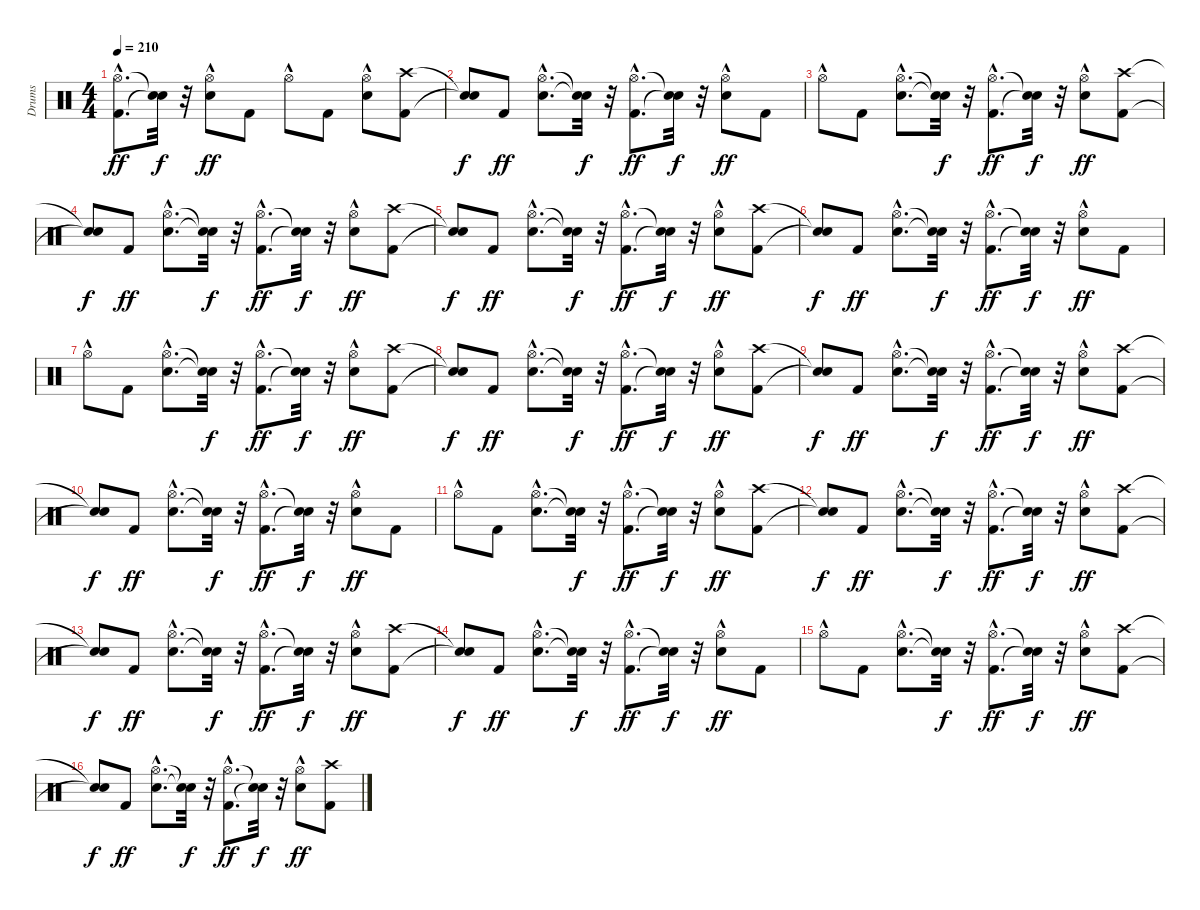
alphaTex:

\track ("Drums" "Drums") {instrument percussion}
\staff {score}
\articulation defaults
\ts (4 4)
\tempo 210
\clef neutral
\ks c
("Kick (hit) 2"{hac} "Hi-Hat (open)"{hac}).8{d dy ff} ("Snare (hit)"{t} "Snare (hit)"{t}).32{dy f} r.32 ("Snare (hit) 2" "Hi-Hat (open)"{hac}).8{dy ff} "Kick (hit) 2".8 "Hi-Hat (open)"{hac}.8 "Kick (hit) 2".8 ("Snare (hit) 2" "Hi-Hat (open)"{hac}).8 ("Kick (hit) 2" "Crash high (hit)").8 |
("Snare (hit)"{t} "Snare (hit)"{t}).8{dy f} "Kick (hit) 2".8{dy ff} ("Snare (hit) 2"{hac} "Hi-Hat (open)"{hac}).8{d} ("Snare (hit)"{t} "Snare (hit)"{t}).32{dy f} r.32 ("Kick (hit) 2"{hac} "Hi-Hat (open)"{hac}).8{d dy ff} ("Snare (hit)"{t} "Snare (hit)"{t}).32{dy f} r.32 ("Snare (hit) 2" "Hi-Hat (open)"{hac}).8{dy ff} "Kick (hit) 2".8 |
"Hi-Hat (open)"{hac}.8 "Kick (hit) 2".8 ("Snare (hit) 2"{hac} "Hi-Hat (open)"{hac}).8{d} ("Snare (hit)"{t} "Snare (hit)"{t}).32{dy f} r.32 ("Kick (hit) 2"{hac} "Hi-Hat (open)"{hac}).8{d dy ff} ("Snare (hit)"{t} "Snare (hit)"{t}).32{dy f} r.32 ("Snare (hit) 2" "Hi-Hat (open)"{hac}).8{dy ff} ("Kick (hit) 2" "Crash high (hit)").8 |
("Snare (hit)"{t} "Snare (hit)"{t}).8{dy f} "Kick (hit) 2".8{dy ff} ("Snare (hit) 2"{hac} "Hi-Hat (open)"{hac}).8{d} ("Snare (hit)"{t} "Snare (hit)"{t}).32{dy f} r.32 ("Kick (hit) 2"{hac} "Hi-Hat (open)"{hac}).8{d dy ff} ("Snare (hit)"{t} "Snare (hit)"{t}).32{dy f} r.32 ("Snare (hit) 2" "Hi-Hat (open)"{hac}).8{dy ff} ("Kick (hit) 2" "Crash high (hit)").8 |
("Snare (hit)"{t} "Snare (hit)"{t}).8{dy f} "Kick (hit) 2".8{dy ff} ("Snare (hit) 2"{hac} "Hi-Hat (open)"{hac}).8{d} ("Snare (hit)"{t} "Snare (hit)"{t}).32{dy f} r.32 ("Kick (hit) 2"{hac} "Hi-Hat (open)"{hac}).8{d dy ff} ("Snare (hit)"{t} "Snare (hit)"{t}).32{dy f} r.32 ("Snare (hit) 2" "Hi-Hat (open)"{hac}).8{dy ff} ("Kick (hit) 2" "Crash high (hit)").8 |
("Snare (hit)"{t} "Snare (hit)"{t}).8{dy f} "Kick (hit) 2".8{dy ff} ("Snare (hit) 2"{hac} "Hi-Hat (open)"{hac}).8{d} ("Snare (hit)"{t} "Snare (hit)"{t}).32{dy f} r.32 ("Kick (hit) 2"{hac} "Hi-Hat (open)"{hac}).8{d dy ff} ("Snare (hit)"{t} "Snare (hit)"{t}).32{dy f} r.32 ("Snare (hit) 2" "Hi-Hat (open)"{hac}).8{dy ff} "Kick (hit) 2".8 |
"Hi-Hat (open)"{hac}.8 "Kick (hit) 2".8 ("Snare (hit) 2"{hac} "Hi-Hat (open)"{hac}).8{d} ("Snare (hit)"{t} "Snare (hit)"{t}).32{dy f} r.32 ("Kick (hit) 2"{hac} "Hi-Hat (open)"{hac}).8{d dy ff} ("Snare (hit)"{t} "Snare (hit)"{t}).32{dy f} r.32 ("Snare (hit) 2" "Hi-Hat (open)"{hac}).8{dy ff} ("Kick (hit) 2" "Crash high (hit)").8 |
("Snare (hit)"{t} "Snare (hit)"{t}).8{dy f} "Kick (hit) 2".8{dy ff} ("Snare (hit) 2"{hac} "Hi-Hat (open)"{hac}).8{d} ("Snare (hit)"{t} "Snare (hit)"{t}).32{dy f} r.32 ("Kick (hit) 2"{hac} "Hi-Hat (open)"{hac}).8{d dy ff} ("Snare (hit)"{t} "Snare (hit)"{t}).32{dy f} r.32 ("Snare (hit) 2" "Hi-Hat (open)"{hac}).8{dy ff} ("Kick (hit) 2" "Crash high (hit)").8 |
("Snare (hit)"{t} "Snare (hit)"{t}).8{dy f} "Kick (hit) 2".8{dy ff} ("Snare (hit) 2"{hac} "Hi-Hat (open)"{hac}).8{d} ("Snare (hit)"{t} "Snare (hit)"{t}).32{dy f} r.32 ("Kick (hit) 2"{hac} "Hi-Hat (open)"{hac}).8{d dy ff} ("Snare (hit)"{t} "Snare (hit)"{t}).32{dy f} r.32 ("Snare (hit) 2" "Hi-Hat (open)"{hac}).8{dy ff} ("Kick (hit) 2" "Crash high (hit)").8 |
("Snare (hit)"{t} "Snare (hit)"{t}).8{dy f} "Kick (hit) 2".8{dy ff} ("Snare (hit) 2"{hac} "Hi-Hat (open)"{hac}).8{d} ("Snare (hit)"{t} "Snare (hit)"{t}).32{dy f} r.32 ("Kick (hit) 2"{hac} "Hi-Hat (open)"{hac}).8{d dy ff} ("Snare (hit)"{t} "Snare (hit)"{t}).32{dy f} r.32 ("Snare (hit) 2" "Hi-Hat (open)"{hac}).8{dy ff} "Kick (hit) 2".8 |
"Hi-Hat (open)"{hac}.8 "Kick (hit) 2".8 ("Snare (hit) 2"{hac} "Hi-Hat (open)"{hac}).8{d} ("Snare (hit)"{t} "Snare (hit)"{t}).32{dy f} r.32 ("Kick (hit) 2"{hac} "Hi-Hat (open)"{hac}).8{d dy ff} ("Snare (hit)"{t} "Snare (hit)"{t}).32{dy f} r.32 ("Snare (hit) 2" "Hi-Hat (open)"{hac}).8{dy ff} ("Kick (hit) 2" "Crash high (hit)").8 |
("Snare (hit)"{t} "Snare (hit)"{t}).8{dy f} "Kick (hit) 2".8{dy ff} ("Snare (hit) 2"{hac} "Hi-Hat (open)"{hac}).8{d} ("Snare (hit)"{t} "Snare (hit)"{t}).32{dy f} r.32 ("Kick (hit) 2"{hac} "Hi-Hat (open)"{hac}).8{d dy ff} ("Snare (hit)"{t} "Snare (hit)"{t}).32{dy f} r.32 ("Snare (hit) 2" "Hi-Hat (open)"{hac}).8{dy ff} ("Kick (hit) 2" "Crash high (hit)").8 |
("Snare (hit)"{t} "Snare (hit)"{t}).8{dy f} "Kick (hit) 2".8{dy ff} ("Snare (hit) 2"{hac} "Hi-Hat (open)"{hac}).8{d} ("Snare (hit)"{t} "Snare (hit)"{t}).32{dy f} r.32 ("Kick (hit) 2"{hac} "Hi-Hat (open)"{hac}).8{d dy ff} ("Snare (hit)"{t} "Snare (hit)"{t}).32{dy f} r.32 ("Snare (hit) 2" "Hi-Hat (open)"{hac}).8{dy ff} ("Kick (hit) 2" "Crash high (hit)").8 |
("Snare (hit)"{t} "Snare (hit)"{t}).8{dy f} "Kick (hit) 2".8{dy ff} ("Snare (hit) 2"{hac} "Hi-Hat (open)"{hac}).8{d} ("Snare (hit)"{t} "Snare (hit)"{t}).32{dy f} r.32 ("Kick (hit) 2"{hac} "Hi-Hat (open)"{hac}).8{d dy ff} ("Snare (hit)"{t} "Snare (hit)"{t}).32{dy f} r.32 ("Snare (hit) 2" "Hi-Hat (open)"{hac}).8{dy ff} "Kick (hit) 2".8 |
"Hi-Hat (open)"{hac}.8 "Kick (hit) 2".8 ("Snare (hit) 2"{hac} "Hi-Hat (open)"{hac}).8{d} ("Snare (hit)"{t} "Snare (hit)"{t}).32{dy f} r.32 ("Kick (hit) 2"{hac} "Hi-Hat (open)"{hac}).8{d dy ff} ("Snare (hit)"{t} "Snare (hit)"{t}).32{dy f} r.32 ("Snare (hit) 2" "Hi-Hat (open)"{hac}).8{dy ff} ("Kick (hit) 2" "Crash high (hit)").8 |
("Snare (hit)"{t} "Snare (hit)"{t}).8{dy f} "Kick (hit) 2".8{dy ff} ("Snare (hit) 2"{hac} "Hi-Hat (open)"{hac}).8{d} ("Snare (hit)"{t} "Snare (hit)"{t}).32{dy f} r.32 ("Kick (hit) 2"{hac} "Hi-Hat (open)"{hac}).8{d dy ff} ("Snare (hit)"{t} "Snare (hit)"{t}).32{dy f} r.32 ("Snare (hit) 2" "Hi-Hat (open)"{hac}).8{dy ff} ("Kick (hit) 2" "Crash high (hit)").8
